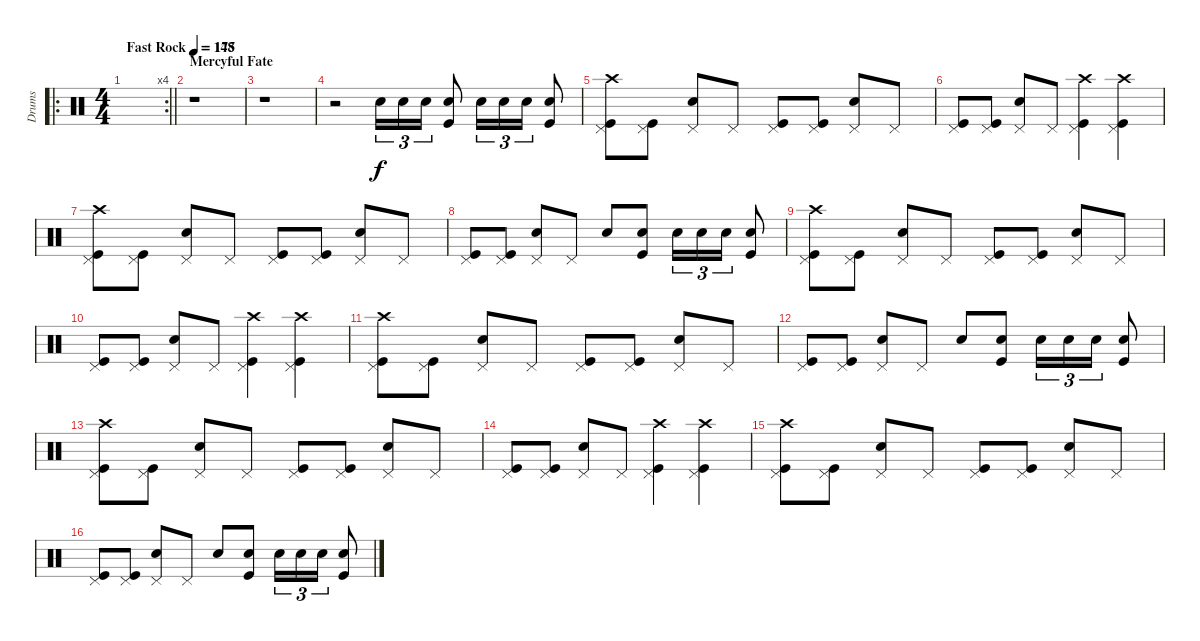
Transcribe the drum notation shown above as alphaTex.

\track ("Drums" "Drums") {instrument percussion}
\staff {score}
\articulation defaults
\ro
\rc 4
\ts (4 4)
\tempo (175 "Fast Rock")
\clef neutral
\barLineRight lightlight
\ks c
|
\section ("" "Mercyful Fate")
\tempo 148
r.1 |
r.1 |
r.2 "Snare (hit) 2".16{tu (3 2)} "Snare (hit) 2".16{tu (3 2)} "Snare (hit) 2".16{tu (3 2)} ("Snare (hit) 2" "Kick (hit)").8 "Snare (hit) 2".16{tu (3 2)} "Snare (hit) 2".16{tu (3 2)} "Snare (hit) 2".16{tu (3 2)} ("Snare (hit) 2" "Kick (hit)").8 |
("Pedal Hi-Hat (hit)" "Kick (hit)" "Crash high (hit)").8 ("Pedal Hi-Hat (hit)" "Kick (hit)").8 ("Pedal Hi-Hat (hit)" "Snare (hit) 2").8 "Pedal Hi-Hat (hit)".8 ("Pedal Hi-Hat (hit)" "Kick (hit)").8 ("Pedal Hi-Hat (hit)" "Kick (hit)").8 ("Pedal Hi-Hat (hit)" "Snare (hit) 2").8 "Pedal Hi-Hat (hit)".8 |
("Pedal Hi-Hat (hit)" "Kick (hit)").8 ("Pedal Hi-Hat (hit)" "Kick (hit)").8 ("Pedal Hi-Hat (hit)" "Snare (hit) 2").8 "Pedal Hi-Hat (hit)".8 ("Pedal Hi-Hat (hit)" "Crash high (hit)" "Kick (hit)").4 ("Pedal Hi-Hat (hit)" "Crash high (hit)" "Kick (hit)").4 |
("Pedal Hi-Hat (hit)" "Kick (hit)" "Crash high (hit)").8 ("Pedal Hi-Hat (hit)" "Kick (hit)").8 ("Pedal Hi-Hat (hit)" "Snare (hit) 2").8 "Pedal Hi-Hat (hit)".8 ("Pedal Hi-Hat (hit)" "Kick (hit)").8 ("Pedal Hi-Hat (hit)" "Kick (hit)").8 ("Pedal Hi-Hat (hit)" "Snare (hit) 2").8 "Pedal Hi-Hat (hit)".8 |
("Pedal Hi-Hat (hit)" "Kick (hit)").8 ("Pedal Hi-Hat (hit)" "Kick (hit)").8 ("Pedal Hi-Hat (hit)" "Snare (hit) 2").8 "Pedal Hi-Hat (hit)".8 "Snare (hit) 2".8 ("Snare (hit) 2" "Kick (hit)").8 "Snare (hit) 2".16{tu (3 2)} "Snare (hit) 2".16{tu (3 2)} "Snare (hit) 2".16{tu (3 2)} ("Snare (hit) 2" "Kick (hit)").8 |
("Pedal Hi-Hat (hit)" "Kick (hit)" "Crash high (hit)").8 ("Pedal Hi-Hat (hit)" "Kick (hit)").8 ("Pedal Hi-Hat (hit)" "Snare (hit) 2").8 "Pedal Hi-Hat (hit)".8 ("Pedal Hi-Hat (hit)" "Kick (hit)").8 ("Pedal Hi-Hat (hit)" "Kick (hit)").8 ("Pedal Hi-Hat (hit)" "Snare (hit) 2").8 "Pedal Hi-Hat (hit)".8 |
("Pedal Hi-Hat (hit)" "Kick (hit)").8 ("Pedal Hi-Hat (hit)" "Kick (hit)").8 ("Pedal Hi-Hat (hit)" "Snare (hit) 2").8 "Pedal Hi-Hat (hit)".8 ("Pedal Hi-Hat (hit)" "Crash high (hit)" "Kick (hit)").4 ("Pedal Hi-Hat (hit)" "Crash high (hit)" "Kick (hit)").4 |
("Pedal Hi-Hat (hit)" "Kick (hit)" "Crash high (hit)").8 ("Pedal Hi-Hat (hit)" "Kick (hit)").8 ("Pedal Hi-Hat (hit)" "Snare (hit) 2").8 "Pedal Hi-Hat (hit)".8 ("Pedal Hi-Hat (hit)" "Kick (hit)").8 ("Pedal Hi-Hat (hit)" "Kick (hit)").8 ("Pedal Hi-Hat (hit)" "Snare (hit) 2").8 "Pedal Hi-Hat (hit)".8 |
("Pedal Hi-Hat (hit)" "Kick (hit)").8 ("Pedal Hi-Hat (hit)" "Kick (hit)").8 ("Pedal Hi-Hat (hit)" "Snare (hit) 2").8 "Pedal Hi-Hat (hit)".8 "Snare (hit) 2".8 ("Snare (hit) 2" "Kick (hit)").8 "Snare (hit) 2".16{tu (3 2)} "Snare (hit) 2".16{tu (3 2)} "Snare (hit) 2".16{tu (3 2)} ("Snare (hit) 2" "Kick (hit)").8 |
("Pedal Hi-Hat (hit)" "Kick (hit)" "Crash high (hit)").8 ("Pedal Hi-Hat (hit)" "Kick (hit)").8 ("Pedal Hi-Hat (hit)" "Snare (hit) 2").8 "Pedal Hi-Hat (hit)".8 ("Pedal Hi-Hat (hit)" "Kick (hit)").8 ("Pedal Hi-Hat (hit)" "Kick (hit)").8 ("Pedal Hi-Hat (hit)" "Snare (hit) 2").8 "Pedal Hi-Hat (hit)".8 |
("Pedal Hi-Hat (hit)" "Kick (hit)").8 ("Pedal Hi-Hat (hit)" "Kick (hit)").8 ("Pedal Hi-Hat (hit)" "Snare (hit) 2").8 "Pedal Hi-Hat (hit)".8 ("Pedal Hi-Hat (hit)" "Crash high (hit)" "Kick (hit)").4 ("Pedal Hi-Hat (hit)" "Crash high (hit)" "Kick (hit)").4 |
("Pedal Hi-Hat (hit)" "Kick (hit)" "Crash high (hit)").8 ("Pedal Hi-Hat (hit)" "Kick (hit)").8 ("Pedal Hi-Hat (hit)" "Snare (hit) 2").8 "Pedal Hi-Hat (hit)".8 ("Pedal Hi-Hat (hit)" "Kick (hit)").8 ("Pedal Hi-Hat (hit)" "Kick (hit)").8 ("Pedal Hi-Hat (hit)" "Snare (hit) 2").8 "Pedal Hi-Hat (hit)".8 |
("Pedal Hi-Hat (hit)" "Kick (hit)").8 ("Pedal Hi-Hat (hit)" "Kick (hit)").8 ("Pedal Hi-Hat (hit)" "Snare (hit) 2").8 "Pedal Hi-Hat (hit)".8 "Snare (hit) 2".8 ("Snare (hit) 2" "Kick (hit)").8 "Snare (hit) 2".16{tu (3 2)} "Snare (hit) 2".16{tu (3 2)} "Snare (hit) 2".16{tu (3 2)} ("Snare (hit) 2" "Kick (hit)").8
